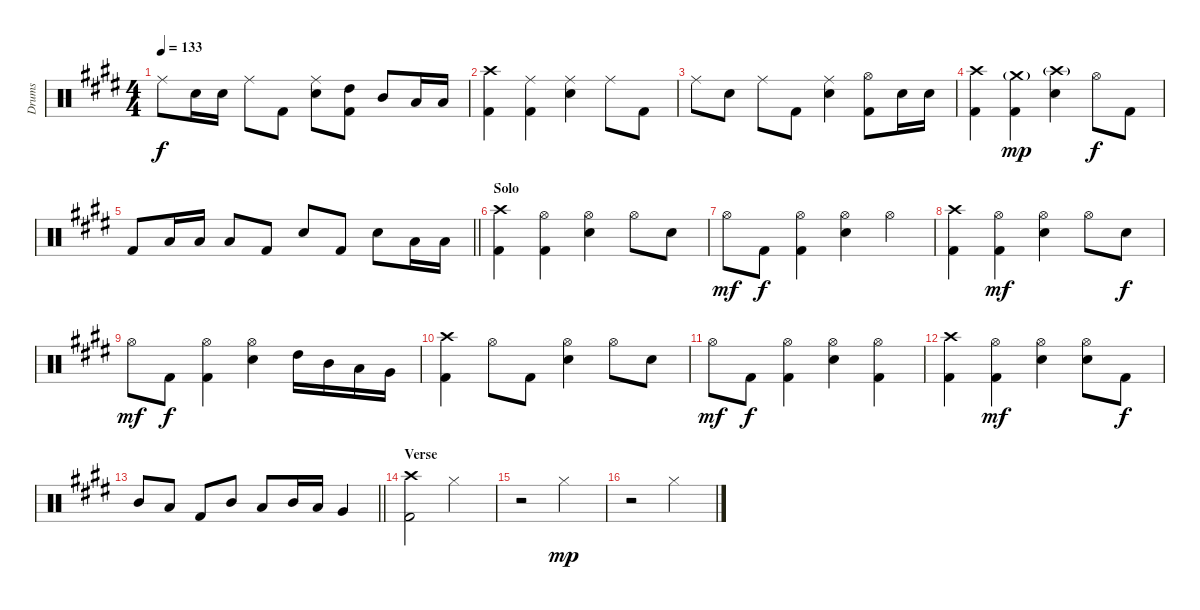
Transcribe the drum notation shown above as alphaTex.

\track ("Drums" "Drums") {instrument percussion}
\staff {score}
\articulation defaults
\ts (4 4)
\tempo 133
\clef neutral
\ks e "Ride (middle)".8{dy f} "Electric Snare (hit)".16 "Electric Snare (hit)".16 "Ride (middle)".8 "Kick (hit) 2".8
("Ride (middle)" "Electric Snare (hit)").8 ("High Tom (hit)" "Kick (hit) 2").8 "Mid Tom (hit)".8 "Low Tom (hit)".16 "Low Tom (hit)".16 |
("Crash high (hit)" "Kick (hit) 2").4 ("Ride (middle)" "Kick (hit) 2").4 ("Ride (middle)" "Electric Snare (hit)").4 "Ride (middle)".8 "Kick (hit) 2".8 |
"Ride (middle)".8 "Electric Snare (hit)".8 "Ride (middle)".8 "Kick (hit) 2".8 ("Ride (middle)" "Electric Snare (hit)").4 ("Hi-Hat (open)" "Kick (hit) 2").8 "Electric Snare (hit)".16 "Electric Snare (hit)".16 |
("Crash high (hit)" "Kick (hit) 2").4 ("Crash medium (hit)"{g} "Kick (hit) 2").4{dy mp} ("Crash high (hit)"{g} "Electric Snare (hit)").4 "Hi-Hat (open)".8{dy f} "Kick (hit) 2".8 |
\barLineRight lightlight "Kick (hit) 2".8 "Low Floor Tom (hit)".16 "Low Floor Tom (hit)".16 "Low Floor Tom (hit)".8 "Kick (hit) 2".8 "Electric Snare (hit)".8 "Kick (hit) 2".8 "Electric Snare (hit)".8 "Low Floor Tom (hit)".16 "Low Floor Tom (hit)".16
|
\section ("" "Solo")
("Crash high (hit)" "Kick (hit) 2").4{volume 7} ("Hi-Hat (open)" "Kick (hit) 2").4 ("Hi-Hat (open)" "Electric Snare (hit)").4 "Hi-Hat (open)".8 "Electric Snare (hit)".8 |
"Hi-Hat (open)".8{dy mf} "Kick (hit) 2".8{dy f} ("Hi-Hat (open)" "Kick (hit) 2").4 ("Hi-Hat (open)" "Electric Snare (hit)").4 "Hi-Hat (open)".4 |
("Crash high (hit)" "Kick (hit) 2").4 ("Hi-Hat (open)" "Kick (hit) 2").4{dy mf} ("Hi-Hat (open)" "Electric Snare (hit)").4 "Hi-Hat (open)".8 "Electric Snare (hit)".8{dy f} |
"Hi-Hat (open)".8{dy mf} "Kick (hit) 2".8{dy f} ("Hi-Hat (open)" "Kick (hit) 2").4 ("Hi-Hat (open)" "Electric Snare (hit)").4 "High Tom (hit)".16 "Mid Tom (hit)".16 "Low Tom (hit)".16 "Very Low Tom (hit)".16 |
("Crash high (hit)" "Kick (hit) 2").4 "Hi-Hat (open)".8 "Kick (hit) 2".8 ("Hi-Hat (open)" "Electric Snare (hit)").4 "Hi-Hat (open)".8 "Electric Snare (hit)".8 |
"Hi-Hat (open)".8{dy mf} "Kick (hit) 2".8{dy f} ("Hi-Hat (open)" "Kick (hit) 2").4 ("Hi-Hat (open)" "Electric Snare (hit)").4 ("Hi-Hat (open)" "Kick (hit) 2").4 |
("Crash high (hit)" "Kick (hit) 2").4 ("Hi-Hat (open)" "Kick (hit) 2").4{dy mf} ("Hi-Hat (open)" "Electric Snare (hit)").4 ("Hi-Hat (open)" "Electric Snare (hit)").8 "Kick (hit) 2".8{dy f} |
\barLineRight lightlight "Mid Tom (hit)".8 "Low Tom (hit)".8 "Kick (hit) 2".8 "Mid Tom (hit)".8 "Low Tom (hit)".8 "Mid Tom (hit)".16 "Low Tom (hit)".16 "Very Low Tom (hit)".4
|
\section ("" "Verse")
("Crash high (hit)" "Kick (hit) 2").2 "Hi-Hat (closed)".2 |
r.2 "Hi-Hat (closed)".2{dy mp} |
r.2 "Hi-Hat (closed)".2
